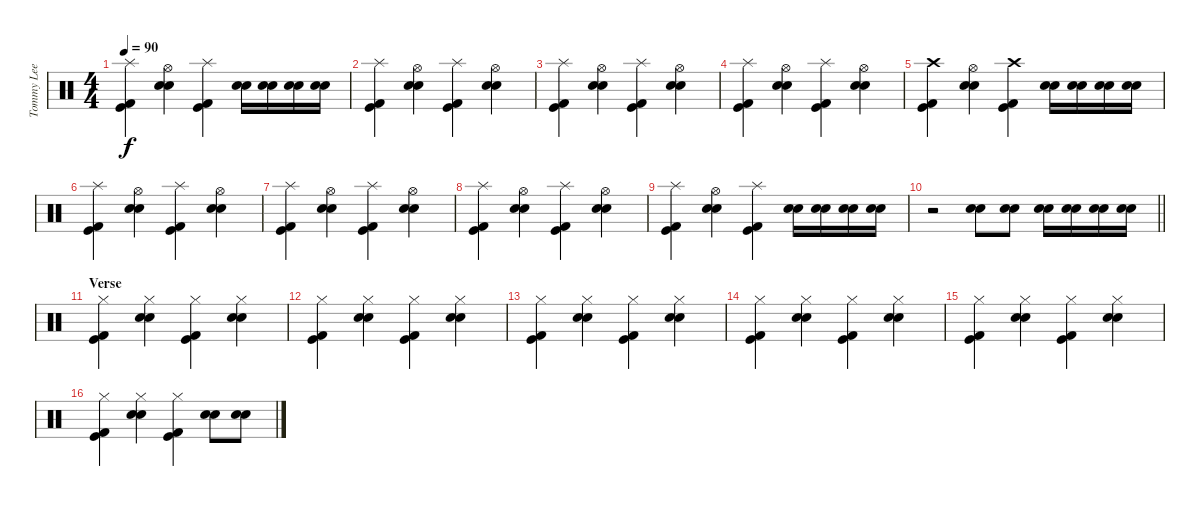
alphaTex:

\track ("Tommy Lee" "Tommy Lee") {instrument percussion}
\staff {score}
\articulation defaults
\ts (4 4)
\tempo 90
\clef neutral
\ks c
("Splash (hit)" "Kick (hit) 2" "Kick (hit)").4{dy f} ("Hi-Hat (open)" "Electric Snare (hit)" "Snare (hit) 2").4 ("Splash (hit)" "Kick (hit) 2" "Kick (hit)").4 ("Electric Snare (hit)" "Snare (hit) 2").16 ("Electric Snare (hit)" "Snare (hit) 2").16 ("Electric Snare (hit)" "Snare (hit) 2").16 ("Electric Snare (hit)" "Snare (hit) 2").16 |
("Splash (hit)" "Kick (hit) 2" "Kick (hit)").4 ("Hi-Hat (open)" "Electric Snare (hit)" "Snare (hit) 2").4 ("Splash (hit)" "Kick (hit) 2" "Kick (hit)").4 ("Hi-Hat (open)" "Electric Snare (hit)" "Snare (hit) 2").4 |
("Splash (hit)" "Kick (hit) 2" "Kick (hit)").4 ("Hi-Hat (open)" "Electric Snare (hit)" "Snare (hit) 2").4 ("Splash (hit)" "Kick (hit) 2" "Kick (hit)").4 ("Hi-Hat (open)" "Electric Snare (hit)" "Snare (hit) 2").4 |
("Splash (hit)" "Kick (hit) 2" "Kick (hit)").4 ("Hi-Hat (open)" "Electric Snare (hit)" "Snare (hit) 2").4 ("Splash (hit)" "Kick (hit) 2" "Kick (hit)").4 ("Hi-Hat (open)" "Electric Snare (hit)" "Snare (hit) 2").4 |
("Crash high (hit)" "Kick (hit) 2" "Kick (hit)").4 ("Hi-Hat (open)" "Electric Snare (hit)" "Snare (hit) 2").4 ("Crash high (hit)" "Kick (hit) 2" "Kick (hit)").4 ("Electric Snare (hit)" "Snare (hit) 2").16 ("Electric Snare (hit)" "Snare (hit) 2").16 ("Electric Snare (hit)" "Snare (hit) 2").16 ("Electric Snare (hit)" "Snare (hit) 2").16 |
("Splash (hit)" "Kick (hit) 2" "Kick (hit)").4 ("Hi-Hat (open)" "Electric Snare (hit)" "Snare (hit) 2").4 ("Splash (hit)" "Kick (hit) 2" "Kick (hit)").4 ("Hi-Hat (open)" "Electric Snare (hit)" "Snare (hit) 2").4 |
("Splash (hit)" "Kick (hit) 2" "Kick (hit)").4 ("Hi-Hat (open)" "Electric Snare (hit)" "Snare (hit) 2").4 ("Splash (hit)" "Kick (hit) 2" "Kick (hit)").4 ("Hi-Hat (open)" "Electric Snare (hit)" "Snare (hit) 2").4 |
("Splash (hit)" "Kick (hit) 2" "Kick (hit)").4 ("Hi-Hat (open)" "Electric Snare (hit)" "Snare (hit) 2").4 ("Splash (hit)" "Kick (hit) 2" "Kick (hit)").4 ("Hi-Hat (open)" "Electric Snare (hit)" "Snare (hit) 2").4 |
("Splash (hit)" "Kick (hit) 2" "Kick (hit)").4 ("Hi-Hat (open)" "Electric Snare (hit)" "Snare (hit) 2").4 ("Splash (hit)" "Kick (hit) 2" "Kick (hit)").4 ("Electric Snare (hit)" "Snare (hit) 2").16 ("Electric Snare (hit)" "Snare (hit) 2").16 ("Electric Snare (hit)" "Snare (hit) 2").16 ("Electric Snare (hit)" "Snare (hit) 2").16 |
\barLineRight lightlight
r.2 ("Electric Snare (hit)" "Snare (hit) 2").8 ("Electric Snare (hit)" "Snare (hit) 2").8 ("Electric Snare (hit)" "Snare (hit) 2").16 ("Electric Snare (hit)" "Snare (hit) 2").16 ("Electric Snare (hit)" "Snare (hit) 2").16 ("Electric Snare (hit)" "Snare (hit) 2").16 |
\section ("" "Verse")
("Hi-Hat (closed)" "Kick (hit) 2" "Kick (hit)").4 ("Hi-Hat (closed)" "Electric Snare (hit)" "Snare (hit) 2").4 ("Hi-Hat (closed)" "Kick (hit) 2" "Kick (hit)").4 ("Hi-Hat (closed)" "Electric Snare (hit)" "Snare (hit) 2").4 |
("Hi-Hat (closed)" "Kick (hit) 2" "Kick (hit)").4 ("Hi-Hat (closed)" "Electric Snare (hit)" "Snare (hit) 2").4 ("Hi-Hat (closed)" "Kick (hit) 2" "Kick (hit)").4 ("Hi-Hat (closed)" "Electric Snare (hit)" "Snare (hit) 2").4 |
("Hi-Hat (closed)" "Kick (hit) 2" "Kick (hit)").4 ("Hi-Hat (closed)" "Electric Snare (hit)" "Snare (hit) 2").4 ("Hi-Hat (closed)" "Kick (hit) 2" "Kick (hit)").4 ("Hi-Hat (closed)" "Electric Snare (hit)" "Snare (hit) 2").4 |
("Hi-Hat (closed)" "Kick (hit) 2" "Kick (hit)").4 ("Hi-Hat (closed)" "Electric Snare (hit)" "Snare (hit) 2").4 ("Hi-Hat (closed)" "Kick (hit) 2" "Kick (hit)").4 ("Hi-Hat (closed)" "Electric Snare (hit)" "Snare (hit) 2").4 |
("Hi-Hat (closed)" "Kick (hit) 2" "Kick (hit)").4 ("Hi-Hat (closed)" "Electric Snare (hit)" "Snare (hit) 2").4 ("Hi-Hat (closed)" "Kick (hit) 2" "Kick (hit)").4 ("Hi-Hat (closed)" "Electric Snare (hit)" "Snare (hit) 2").4 |
("Hi-Hat (closed)" "Kick (hit) 2" "Kick (hit)").4 ("Hi-Hat (closed)" "Electric Snare (hit)" "Snare (hit) 2").4 ("Hi-Hat (closed)" "Kick (hit) 2" "Kick (hit)").4 ("Electric Snare (hit)" "Snare (hit) 2").8 ("Electric Snare (hit)" "Snare (hit) 2").8
